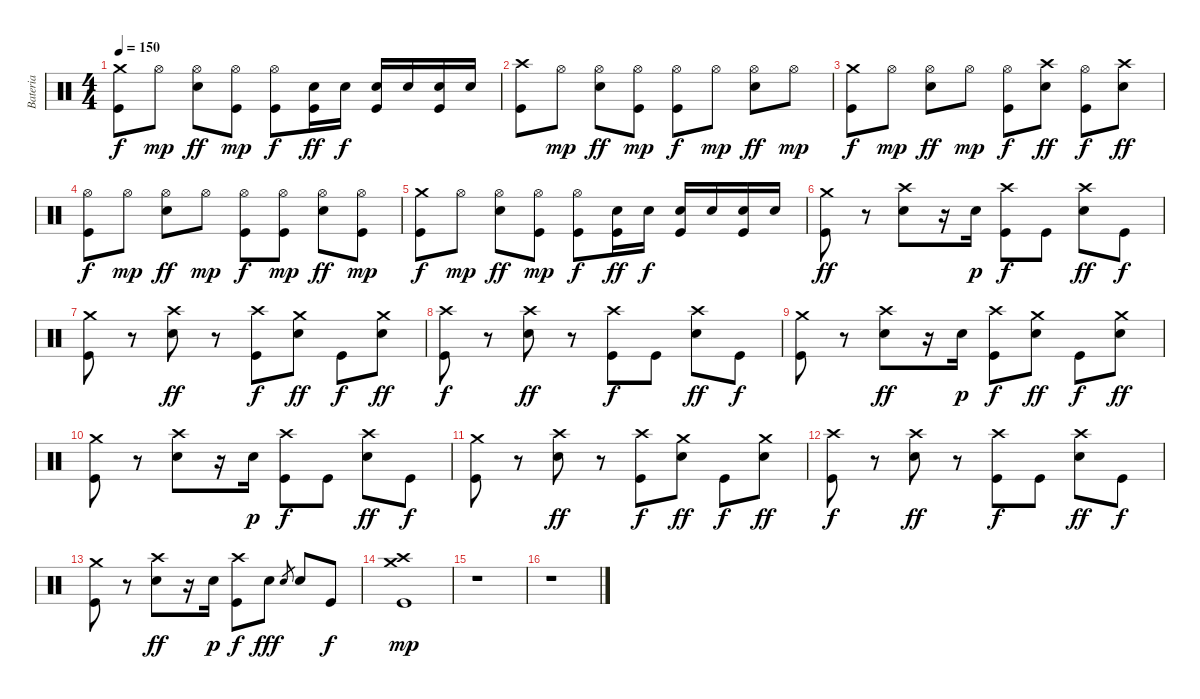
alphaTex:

\track ("Bateria" "Bateria") {instrument percussion}
\staff {score}
\articulation defaults
\ts (4 4)
\tempo 150
\clef neutral
\ks c
("Crash medium (hit)" "Kick (hit)").8{dy f} "Hi-Hat (open)".8{dy mp} ("Hi-Hat (open)" "Electric Snare (hit)").8{dy ff} ("Hi-Hat (open)" "Kick (hit)").8{dy mp} ("Hi-Hat (open)" "Kick (hit)").8{dy f} ("Electric Snare (hit)" "Kick (hit)").16{dy ff} "Electric Snare (hit)".16{dy f} ("Electric Snare (hit)" "Kick (hit)").16 "Electric Snare (hit)".16 ("Electric Snare (hit)" "Kick (hit)").16 "Electric Snare (hit)".16 |
("Crash high (hit)" "Kick (hit)").8 "Hi-Hat (open)".8{dy mp} ("Hi-Hat (open)" "Electric Snare (hit)").8{dy ff} ("Hi-Hat (open)" "Kick (hit)").8{dy mp} ("Hi-Hat (open)" "Kick (hit)").8{dy f} "Hi-Hat (open)".8{dy mp} ("Hi-Hat (open)" "Electric Snare (hit)").8{dy ff} "Hi-Hat (open)".8{dy mp} |
("Crash medium (hit)" "Kick (hit)").8{dy f} "Hi-Hat (open)".8{dy mp} ("Hi-Hat (open)" "Electric Snare (hit)").8{dy ff} "Hi-Hat (open)".8{dy mp} ("Hi-Hat (open)" "Kick (hit)").8{dy f} ("Crash high (hit)" "Electric Snare (hit)").8{dy ff} ("Hi-Hat (open)" "Kick (hit)").8{dy f} ("Crash high (hit)" "Electric Snare (hit)").8{dy ff} |
("Hi-Hat (open)" "Kick (hit)").8{dy f} "Hi-Hat (open)".8{dy mp} ("Hi-Hat (open)" "Electric Snare (hit)").8{dy ff} "Hi-Hat (open)".8{dy mp} ("Hi-Hat (open)" "Kick (hit)").8{dy f} ("Hi-Hat (open)" "Kick (hit)").8{dy mp} ("Hi-Hat (open)" "Electric Snare (hit)").8{dy ff} ("Hi-Hat (open)" "Kick (hit)").8{dy mp} |
("Crash medium (hit)" "Kick (hit)").8{dy f} "Hi-Hat (open)".8{dy mp} ("Hi-Hat (open)" "Electric Snare (hit)").8{dy ff} ("Hi-Hat (open)" "Kick (hit)").8{dy mp} ("Hi-Hat (open)" "Kick (hit)").8{dy f} ("Electric Snare (hit)" "Kick (hit)").16{dy ff} "Electric Snare (hit)".16{dy f} ("Electric Snare (hit)" "Kick (hit)").16 "Electric Snare (hit)".16 ("Electric Snare (hit)" "Kick (hit)").16 "Electric Snare (hit)".16 |
("Crash medium (hit)" "Kick (hit)").8{dy ff} r.8 ("Crash high (hit)" "Electric Snare (hit)").8 r.16 "Electric Snare (hit)".16{dy p} ("Crash high (hit)" "Kick (hit)").8{dy f} "Kick (hit)".8 ("Crash high (hit)" "Electric Snare (hit)").8{dy ff} "Kick (hit)".8{dy f} |
("Crash medium (hit)" "Kick (hit)").8 r.8 ("Crash high (hit)" "Electric Snare (hit)").8{dy ff} r.8 ("Crash high (hit)" "Kick (hit)").8{dy f} ("Crash medium (hit)" "Electric Snare (hit)").8{dy ff} "Kick (hit)".8{dy f} ("Crash medium (hit)" "Electric Snare (hit)").8{dy ff} |
("Crash high (hit)" "Kick (hit)").8{dy f} r.8 ("Crash high (hit)" "Electric Snare (hit)").8{dy ff} r.8 ("Crash high (hit)" "Kick (hit)").8{dy f} "Kick (hit)".8 ("Crash high (hit)" "Electric Snare (hit)").8{dy ff} "Kick (hit)".8{dy f} |
("Crash medium (hit)" "Kick (hit)").8 r.8 ("Crash high (hit)" "Electric Snare (hit)").8{dy ff} r.16 "Electric Snare (hit)".16{dy p} ("Crash high (hit)" "Kick (hit)").8{dy f} ("Crash medium (hit)" "Electric Snare (hit)").8{dy ff} "Kick (hit)".8{dy f} ("Crash medium (hit)" "Electric Snare (hit)").8{dy ff} |
("Crash medium (hit)" "Kick (hit)").8 r.8 ("Crash high (hit)" "Electric Snare (hit)").8 r.16 "Electric Snare (hit)".16{dy p} ("Crash high (hit)" "Kick (hit)").8{dy f} "Kick (hit)".8 ("Crash high (hit)" "Electric Snare (hit)").8{dy ff} "Kick (hit)".8{dy f} |
("Crash medium (hit)" "Kick (hit)").8 r.8 ("Crash high (hit)" "Electric Snare (hit)").8{dy ff} r.8 ("Crash high (hit)" "Kick (hit)").8{dy f} ("Crash medium (hit)" "Electric Snare (hit)").8{dy ff} "Kick (hit)".8{dy f} ("Crash medium (hit)" "Electric Snare (hit)").8{dy ff} |
("Crash high (hit)" "Kick (hit)").8{dy f} r.8 ("Crash high (hit)" "Electric Snare (hit)").8{dy ff} r.8 ("Crash high (hit)" "Kick (hit)").8{dy f} "Kick (hit)".8 ("Crash high (hit)" "Electric Snare (hit)").8{dy ff} "Kick (hit)".8{dy f} |
("Crash medium (hit)" "Kick (hit)").8 r.8 ("Crash high (hit)" "Electric Snare (hit)").8{dy ff} r.16 "Electric Snare (hit)".16{dy p} ("Crash high (hit)" "Kick (hit)").8{dy f} "Electric Snare (hit)".8{dy fff} "Electric Snare (hit)".8{gr} "Electric Snare (hit)".8 "Kick (hit)".8{dy f} |
("Crash medium (hit)" "Crash high (hit)" "Kick (hit)").1{dy mp} |
r.1 |
r.1
